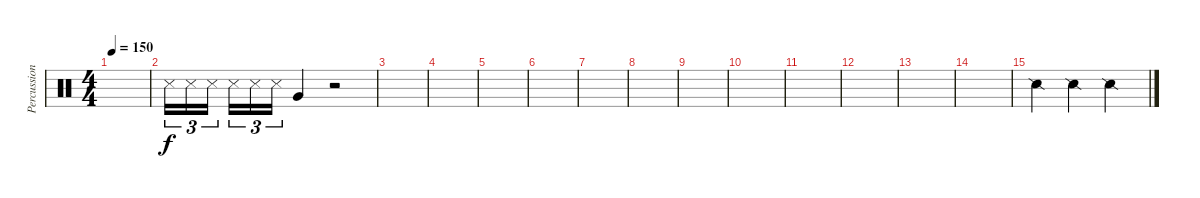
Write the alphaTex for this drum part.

\track ("Percussion" "Percussion") {instrument percussion}
\staff {score}
\articulation defaults
\ts (4 4)
\tempo 150
\clef neutral
\ks c
|
"Metronome (hit)".16{tu (3 2)} "Metronome (hit)".16{tu (3 2)} "Metronome (hit)".16{tu (3 2) beam splitsecondary} "Metronome (hit)".16{tu (3 2)} "Metronome (hit)".16{tu (3 2)} "Metronome (hit)".16{tu (3 2)} "Very Low Tom (hit)".4 r.2 |
|
|
|
|
|
|
|
|
|
|
|
|
"Snare (side stick) 2".4 "Snare (side stick) 2".4 "Snare (side stick) 2".4
